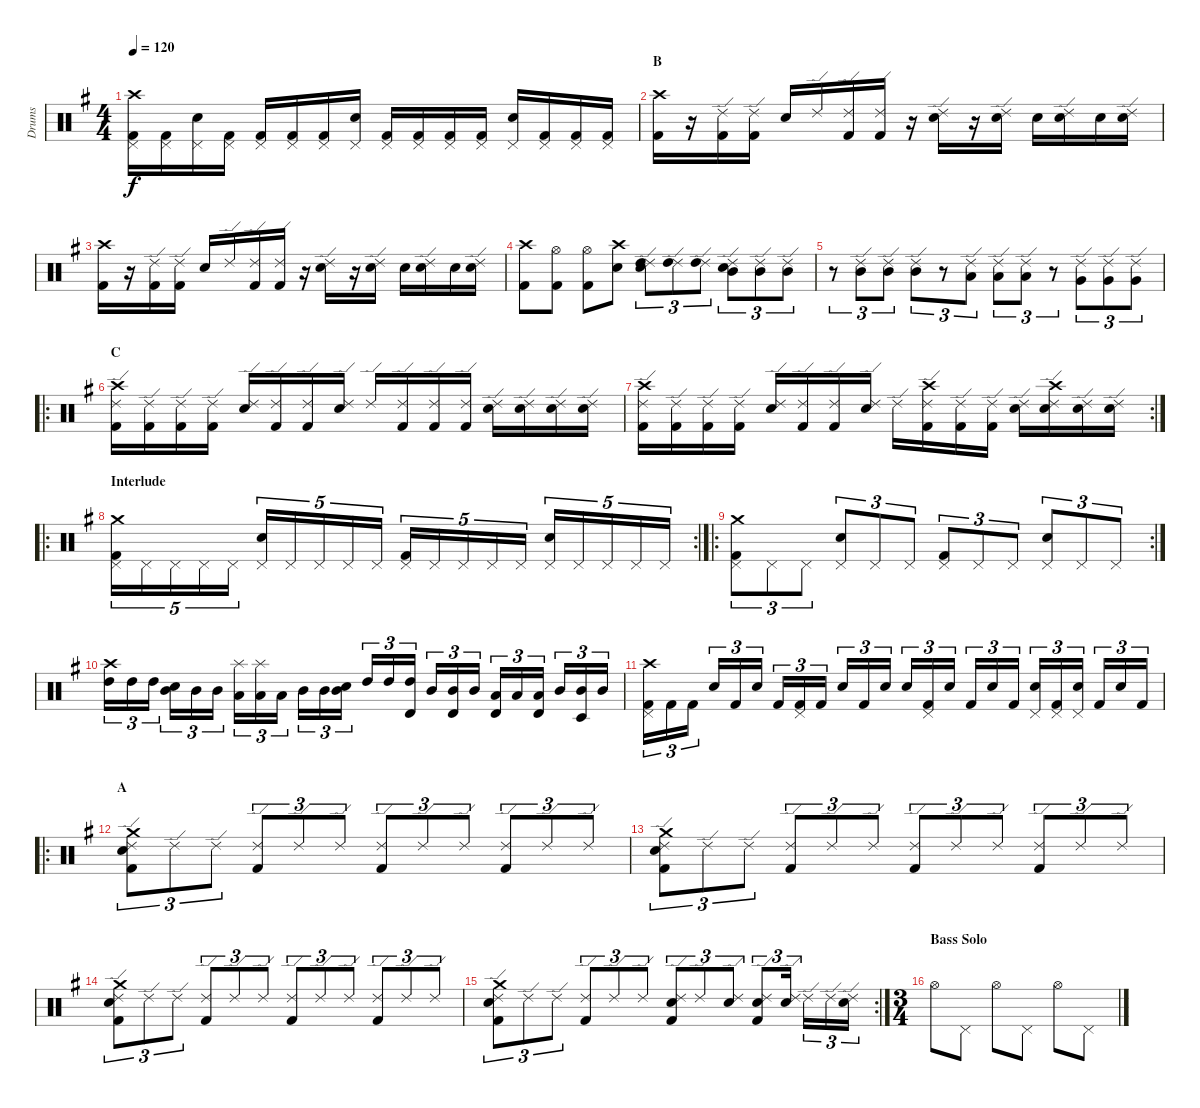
\track ("Drums" "Drums") {instrument percussion}
\staff {score}
\articulation defaults
\ts (4 4)
\tempo 120
\clef neutral
\ks eminor
("Crash high (hit)" "Pedal Hi-Hat (hit)" "Kick (hit) 2").16{dy f} ("Pedal Hi-Hat (hit)" "Kick (hit) 2").16 ("Pedal Hi-Hat (hit)" "Electric Snare (hit)").16 ("Pedal Hi-Hat (hit)" "Kick (hit) 2").16 ("Pedal Hi-Hat (hit)" "Kick (hit) 2").16 ("Pedal Hi-Hat (hit)" "Kick (hit) 2").16 ("Pedal Hi-Hat (hit)" "Kick (hit) 2").16 ("Pedal Hi-Hat (hit)" "Electric Snare (hit)").16 ("Pedal Hi-Hat (hit)" "Kick (hit) 2").16 ("Pedal Hi-Hat (hit)" "Kick (hit) 2").16 ("Pedal Hi-Hat (hit)" "Kick (hit) 2").16 ("Pedal Hi-Hat (hit)" "Kick (hit) 2").16 ("Pedal Hi-Hat (hit)" "Electric Snare (hit)").16 ("Pedal Hi-Hat (hit)" "Kick (hit) 2").16 ("Pedal Hi-Hat (hit)" "Kick (hit) 2").16 ("Pedal Hi-Hat (hit)" "Kick (hit) 2").16 |
\section ("" "B")
("Crash high (hit)" "Kick (hit) 2").16 r.16 ("Ride (edge) 2" "Kick (hit) 2").16 ("Ride (edge) 2" "Kick (hit) 2").16 "Electric Snare (hit)".16 "Ride (edge) 2".16 ("Ride (edge) 2" "Kick (hit) 2").16 ("Ride (edge) 2" "Kick (hit) 2").16 r.16 ("Ride (edge) 2" "Electric Snare (hit)").16 r.16 ("Ride (edge) 2" "Electric Snare (hit)").16 "Electric Snare (hit)".16 ("Ride (edge) 2" "Electric Snare (hit)").16 "Electric Snare (hit)".16 ("Ride (edge) 2" "Electric Snare (hit)").16 |
("Crash high (hit)" "Kick (hit) 2").16 r.16 ("Ride (edge) 2" "Kick (hit) 2").16 ("Ride (edge) 2" "Kick (hit) 2").16 "Electric Snare (hit)".16 "Ride (edge) 2".16 ("Ride (edge) 2" "Kick (hit) 2").16 ("Ride (edge) 2" "Kick (hit) 2").16 r.16 ("Ride (edge) 2" "Electric Snare (hit)").16 r.16 ("Ride (edge) 2" "Electric Snare (hit)").16 "Electric Snare (hit)".16 ("Ride (edge) 2" "Electric Snare (hit)").16 "Electric Snare (hit)".16 ("Ride (edge) 2" "Electric Snare (hit)").16 |
("Crash high (hit)" "Kick (hit) 2").8 ("Hi-Hat (open)" "Kick (hit) 2").8 ("Hi-Hat (open)" "Kick (hit) 2").8 ("Crash high (hit)" "Electric Snare (hit)").8 ("Ride (edge) 2" "Electric Snare (hit)" "High Tom (hit)").8{tu (3 2)} ("Ride (edge) 2" "High Tom (hit)").8{tu (3 2)} ("Ride (edge) 2" "High Tom (hit)").8{tu (3 2)} ("Ride (edge) 2" "Electric Snare (hit)" "Mid Tom (hit)").8{tu (3 2)} ("Ride (edge) 2" "Mid Tom (hit)").8{tu (3 2)} ("Ride (edge) 2" "Mid Tom (hit)").8{tu (3 2)} |
r.8{tu (3 2)} ("Ride (edge) 2" "Mid Tom (hit)").8{tu (3 2)} ("Ride (edge) 2" "Mid Tom (hit)").8{tu (3 2)} ("Ride (edge) 2" "Mid Tom (hit)").8{tu (3 2)} r.8{tu (3 2)} ("Ride (edge) 2" "Low Tom (hit)").8{tu (3 2)} ("Ride (edge) 2" "Low Tom (hit)").8{tu (3 2)} ("Ride (edge) 2" "Low Tom (hit)").8{tu (3 2)} r.8{tu (3 2)} ("Ride (edge) 2" "Very Low Tom (hit)").8{tu (3 2)} ("Ride (edge) 2" "Very Low Tom (hit)").8{tu (3 2)} ("Ride (edge) 2" "Very Low Tom (hit)").8{tu (3 2)} |
\ro
\section ("" "C")
("Crash high (hit)" "Ride (edge) 2" "Kick (hit) 2").16 ("Ride (edge) 2" "Kick (hit) 2").16 ("Ride (edge) 2" "Kick (hit) 2").16 ("Ride (edge) 2" "Kick (hit) 2").16 ("Ride (edge) 2" "Electric Snare (hit)").16 ("Ride (edge) 2" "Kick (hit) 2").16 ("Ride (edge) 2" "Kick (hit) 2").16 ("Ride (edge) 2" "Electric Snare (hit)").16 "Ride (edge) 2".16 ("Ride (edge) 2" "Kick (hit) 2").16 ("Ride (edge) 2" "Kick (hit) 2").16 ("Ride (edge) 2" "Kick (hit) 2").16 ("Ride (edge) 2" "Electric Snare (hit)").16 ("Ride (edge) 2" "Electric Snare (hit)").16 ("Ride (edge) 2" "Electric Snare (hit)").16 ("Ride (edge) 2" "Electric Snare (hit)").16 |
\rc 2
("Crash high (hit)" "Ride (edge) 2" "Kick (hit) 2").16 ("Ride (edge) 2" "Kick (hit) 2").16 ("Ride (edge) 2" "Kick (hit) 2").16 ("Ride (edge) 2" "Kick (hit) 2").16 ("Ride (edge) 2" "Electric Snare (hit)").16 ("Ride (edge) 2" "Kick (hit) 2").16 ("Ride (edge) 2" "Kick (hit) 2").16 ("Ride (edge) 2" "Electric Snare (hit)").16 "Ride (edge) 2".16 ("Crash high (hit)" "Ride (edge) 2" "Kick (hit) 2").16 ("Ride (edge) 2" "Kick (hit) 2").16 ("Ride (edge) 2" "Kick (hit) 2").16 ("Ride (edge) 2" "Electric Snare (hit)").16 ("Crash high (hit)" "Ride (edge) 2" "Electric Snare (hit)").16 ("Ride (edge) 2" "Electric Snare (hit)").16 ("Ride (edge) 2" "Electric Snare (hit)").16 |
\ro
\rc 2
\section ("" "Interlude")
("Crash medium (hit)" "Pedal Hi-Hat (hit)" "Kick (hit) 2").16{tu (5 4)} "Pedal Hi-Hat (hit)".16{tu (5 4)} "Pedal Hi-Hat (hit)".16{tu (5 4)} "Pedal Hi-Hat (hit)".16{tu (5 4)} "Pedal Hi-Hat (hit)".16{tu (5 4)} ("Pedal Hi-Hat (hit)" "Electric Snare (hit)").16{tu (5 4)} "Pedal Hi-Hat (hit)".16{tu (5 4)} "Pedal Hi-Hat (hit)".16{tu (5 4)} "Pedal Hi-Hat (hit)".16{tu (5 4)} "Pedal Hi-Hat (hit)".16{tu (5 4)} ("Pedal Hi-Hat (hit)" "Kick (hit) 2").16{tu (5 4)} "Pedal Hi-Hat (hit)".16{tu (5 4)} "Pedal Hi-Hat (hit)".16{tu (5 4)} "Pedal Hi-Hat (hit)".16{tu (5 4)} "Pedal Hi-Hat (hit)".16{tu (5 4)} ("Pedal Hi-Hat (hit)" "Electric Snare (hit)").16{tu (5 4)} "Pedal Hi-Hat (hit)".16{tu (5 4)} "Pedal Hi-Hat (hit)".16{tu (5 4)} "Pedal Hi-Hat (hit)".16{tu (5 4)} "Pedal Hi-Hat (hit)".16{tu (5 4)} |
\ro
\rc 2
("Crash medium (hit)" "Pedal Hi-Hat (hit)" "Kick (hit) 2").8{tu (3 2)} "Pedal Hi-Hat (hit)".8{tu (3 2)} "Pedal Hi-Hat (hit)".8{tu (3 2)} ("Pedal Hi-Hat (hit)" "Electric Snare (hit)").8{tu (3 2)} "Pedal Hi-Hat (hit)".8{tu (3 2)} "Pedal Hi-Hat (hit)".8{tu (3 2)} ("Pedal Hi-Hat (hit)" "Kick (hit) 2").8{tu (3 2)} "Pedal Hi-Hat (hit)".8{tu (3 2)} "Pedal Hi-Hat (hit)".8{tu (3 2)} ("Pedal Hi-Hat (hit)" "Electric Snare (hit)").8{tu (3 2)} "Pedal Hi-Hat (hit)".8{tu (3 2)} "Pedal Hi-Hat (hit)".8{tu (3 2)} |
("Crash high (hit)" "High Tom (hit)").16{tu (3 2)} "High Tom (hit)".16{tu (3 2)} "High Tom (hit)".16{tu (3 2)} ("Electric Snare (hit)" "Mid Tom (hit)").16{tu (3 2)} "Mid Tom (hit)".16{tu (3 2)} "Mid Tom (hit)".16{tu (3 2)} ("Splash (hit)" "Low Tom (hit)").16{tu (3 2)} ("Splash (hit)" "Low Tom (hit)").16{tu (3 2)} "Low Tom (hit)".16{tu (3 2)} "Mid Tom (hit)".16{tu (3 2)} "Mid Tom (hit)".16{tu (3 2)} ("Electric Snare (hit)" "Mid Tom (hit)").16{tu (3 2)} "High Tom (hit)".16{tu (3 2)} "High Tom (hit)".16{tu (3 2)} ("Timbale high (hit)" "High Tom (hit)").16{tu (3 2)} "Mid Tom (hit)".16{tu (3 2)} ("Timbale high (hit)" "Mid Tom (hit)").16{tu (3 2)} "Mid Tom (hit)".16{tu (3 2)} ("Timbale high (hit)" "Low Tom (hit)").16{tu (3 2)} "Low Tom (hit)".16{tu (3 2)} ("Timbale high (hit)" "Low Tom (hit)").16{tu (3 2)} "Mid Tom (hit)".16{tu (3 2)} ("Timbale low (hit)" "Mid Tom (hit)").16{tu (3 2)} "Mid Tom (hit)".16{tu (3 2)} |
("Crash high (hit)" "Pedal Hi-Hat (hit)" "Kick (hit) 2").16{tu (3 2)} "Kick (hit) 2".16{tu (3 2)} "Kick (hit) 2".16{tu (3 2)} "Electric Snare (hit)".16{tu (3 2)} "Kick (hit) 2".16{tu (3 2)} "Electric Snare (hit)".16{tu (3 2)} "Kick (hit) 2".16{tu (3 2)} ("Pedal Hi-Hat (hit)" "Kick (hit) 2").16{tu (3 2)} "Kick (hit) 2".16{tu (3 2)} "Electric Snare (hit)".16{tu (3 2)} "Kick (hit) 2".16{tu (3 2)} "Electric Snare (hit)".16{tu (3 2)} "Electric Snare (hit)".16{tu (3 2)} ("Pedal Hi-Hat (hit)" "Kick (hit) 2").16{tu (3 2)} "Electric Snare (hit)".16{tu (3 2)} "Kick (hit) 2".16{tu (3 2)} "Electric Snare (hit)".16{tu (3 2)} "Kick (hit) 2".16{tu (3 2)} ("Pedal Hi-Hat (hit)" "Snare (hit) 2").16{tu (3 2)} ("Pedal Hi-Hat (hit)" "Kick (hit) 2").16{tu (3 2)} ("Pedal Hi-Hat (hit)" "Snare (hit) 2").16{tu (3 2)} "Kick (hit) 2".16{tu (3 2)} "Snare (hit) 2".16{tu (3 2)} "Kick (hit) 2".16{tu (3 2)} |
\ro
\section ("" "A")
("Crash medium (hit)" "Ride (edge) 2" "Electric Snare (hit)" "Kick (hit) 2").8{tu (3 2)} "Ride (edge) 2".8{tu (3 2)} "Ride (edge) 2".8{tu (3 2)} ("Ride (edge) 2" "Kick (hit) 2").8{tu (3 2)} "Ride (edge) 2".8{tu (3 2)} "Ride (edge) 2".8{tu (3 2)} ("Ride (edge) 2" "Kick (hit) 2").8{tu (3 2)} "Ride (edge) 2".8{tu (3 2)} "Ride (edge) 2".8{tu (3 2)} ("Ride (edge) 2" "Kick (hit) 2").8{tu (3 2)} "Ride (edge) 2".8{tu (3 2)} "Ride (edge) 2".8{tu (3 2)} |
("Crash medium (hit)" "Ride (edge) 2" "Electric Snare (hit)" "Kick (hit) 2").8{tu (3 2)} "Ride (edge) 2".8{tu (3 2)} "Ride (edge) 2".8{tu (3 2)} ("Ride (edge) 2" "Kick (hit) 2").8{tu (3 2)} "Ride (edge) 2".8{tu (3 2)} "Ride (edge) 2".8{tu (3 2)} ("Ride (edge) 2" "Kick (hit) 2").8{tu (3 2)} "Ride (edge) 2".8{tu (3 2)} "Ride (edge) 2".8{tu (3 2)} ("Ride (edge) 2" "Kick (hit) 2").8{tu (3 2)} "Ride (edge) 2".8{tu (3 2)} "Ride (edge) 2".8{tu (3 2)} |
("Crash medium (hit)" "Ride (edge) 2" "Electric Snare (hit)" "Kick (hit) 2").8{tu (3 2)} "Ride (edge) 2".8{tu (3 2)} "Ride (edge) 2".8{tu (3 2)} ("Ride (edge) 2" "Kick (hit) 2").8{tu (3 2)} "Ride (edge) 2".8{tu (3 2)} "Ride (edge) 2".8{tu (3 2)} ("Ride (edge) 2" "Kick (hit) 2").8{tu (3 2)} "Ride (edge) 2".8{tu (3 2)} "Ride (edge) 2".8{tu (3 2)} ("Ride (edge) 2" "Kick (hit) 2").8{tu (3 2)} "Ride (edge) 2".8{tu (3 2)} "Ride (edge) 2".8{tu (3 2)} |
\rc 2
("Crash medium (hit)" "Ride (edge) 2" "Electric Snare (hit)" "Kick (hit) 2").8{tu (3 2)} "Ride (edge) 2".8{tu (3 2)} "Ride (edge) 2".8{tu (3 2)} ("Ride (edge) 2" "Kick (hit) 2").8{tu (3 2)} "Ride (edge) 2".8{tu (3 2)} "Ride (edge) 2".8{tu (3 2)} ("Ride (edge) 2" "Electric Snare (hit)" "Kick (hit) 2").8{tu (3 2)} "Ride (edge) 2".8{tu (3 2)} ("Ride (edge) 2" "Electric Snare (hit)").8{tu (3 2)} ("Ride (edge) 2" "Electric Snare (hit)" "Kick (hit) 2").8{tu (3 2)} ("Ride (edge) 2" "Electric Snare (hit)").16{tu (3 2)} "Ride (edge) 2".16{tu (3 2)} "Ride (edge) 2".16{tu (3 2)} ("Ride (edge) 2" "Electric Snare (hit)").16{tu (3 2)} |
\ts (3 4)
\section ("" "Bass Solo")
"Hi-Hat (open)".8 "Pedal Hi-Hat (hit)".8 "Hi-Hat (open)".8 "Pedal Hi-Hat (hit)".8 "Hi-Hat (open)".8 "Pedal Hi-Hat (hit)".8
